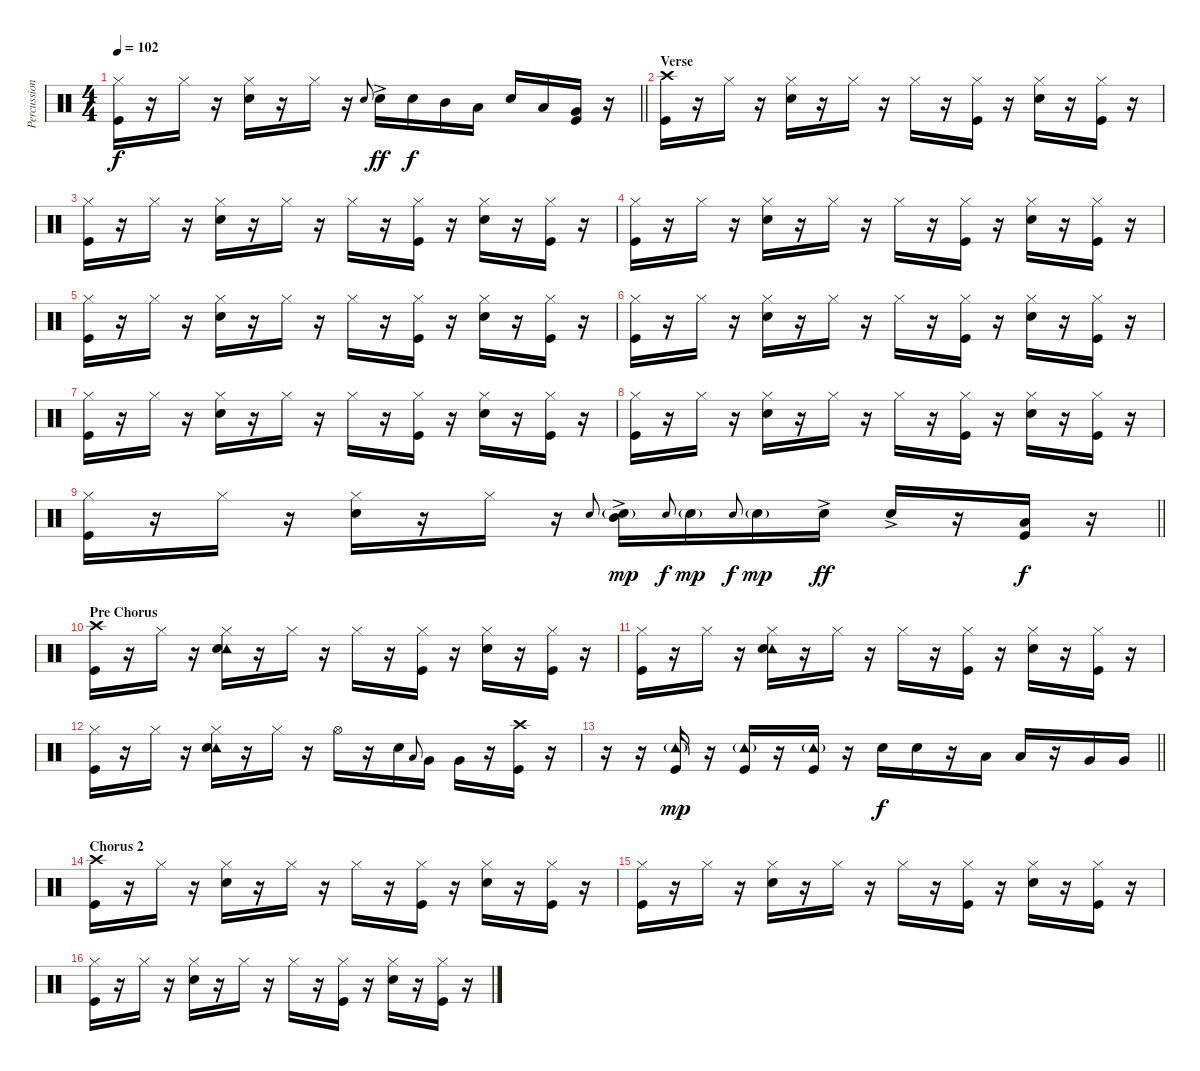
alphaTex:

\track ("Percussion" "Percussion") {instrument percussion}
\staff {score}
\articulation defaults
\ts (4 4)
\tempo 102
\clef neutral
\barLineRight lightlight
\ks c
("Hi-Hat (closed)" "Kick (hit)").16{dy f} r.16 "Hi-Hat (closed)".16 r.16 ("Hi-Hat (closed)" "Snare (hit) 2").16 r.16 "Hi-Hat (closed)".16 r.16 "Snare (hit) 2".8{gr onbeat} "Snare (hit) 2"{ac}.16{dy ff} "Snare (hit) 2".16{dy f} "Mid Tom (hit)".16 "Low Tom (hit)".16 "Snare (hit) 2".16 "Low Tom (hit)".16 ("Very Low Tom (hit)" "Kick (hit)").16 r.16 |
\section ("" "Verse")
("Crash high (hit)" "Kick (hit)").16 r.16 "Hi-Hat (closed)".16 r.16 ("Hi-Hat (closed)" "Snare (hit) 2").16 r.16 "Hi-Hat (closed)".16 r.16 "Hi-Hat (closed)".16 r.16 ("Hi-Hat (closed)" "Kick (hit)").16 r.16 ("Hi-Hat (closed)" "Snare (hit) 2").16 r.16 ("Hi-Hat (closed)" "Kick (hit)").16 r.16 |
("Hi-Hat (closed)" "Kick (hit)").16 r.16 "Hi-Hat (closed)".16 r.16 ("Hi-Hat (closed)" "Snare (hit) 2").16 r.16 "Hi-Hat (closed)".16 r.16 "Hi-Hat (closed)".16 r.16 ("Hi-Hat (closed)" "Kick (hit)").16 r.16 ("Hi-Hat (closed)" "Snare (hit) 2").16 r.16 ("Hi-Hat (closed)" "Kick (hit)").16 r.16 |
("Hi-Hat (closed)" "Kick (hit)").16 r.16 "Hi-Hat (closed)".16 r.16 ("Hi-Hat (closed)" "Snare (hit) 2").16 r.16 "Hi-Hat (closed)".16 r.16 "Hi-Hat (closed)".16 r.16 ("Hi-Hat (closed)" "Kick (hit)").16 r.16 ("Hi-Hat (closed)" "Snare (hit) 2").16 r.16 ("Hi-Hat (closed)" "Kick (hit)").16 r.16 |
("Hi-Hat (closed)" "Kick (hit)").16 r.16 "Hi-Hat (closed)".16 r.16 ("Hi-Hat (closed)" "Snare (hit) 2").16 r.16 "Hi-Hat (closed)".16 r.16 "Hi-Hat (closed)".16 r.16 ("Hi-Hat (closed)" "Kick (hit)").16 r.16 ("Hi-Hat (closed)" "Snare (hit) 2").16 r.16 ("Hi-Hat (closed)" "Kick (hit)").16 r.16 |
("Hi-Hat (closed)" "Kick (hit)").16 r.16 "Hi-Hat (closed)".16 r.16 ("Hi-Hat (closed)" "Snare (hit) 2").16 r.16 "Hi-Hat (closed)".16 r.16 "Hi-Hat (closed)".16 r.16 ("Hi-Hat (closed)" "Kick (hit)").16 r.16 ("Hi-Hat (closed)" "Snare (hit) 2").16 r.16 ("Hi-Hat (closed)" "Kick (hit)").16 r.16 |
("Hi-Hat (closed)" "Kick (hit)").16 r.16 "Hi-Hat (closed)".16 r.16 ("Hi-Hat (closed)" "Snare (hit) 2").16 r.16 "Hi-Hat (closed)".16 r.16 "Hi-Hat (closed)".16 r.16 ("Hi-Hat (closed)" "Kick (hit)").16 r.16 ("Hi-Hat (closed)" "Snare (hit) 2").16 r.16 ("Hi-Hat (closed)" "Kick (hit)").16 r.16 |
("Hi-Hat (closed)" "Kick (hit)").16 r.16 "Hi-Hat (closed)".16 r.16 ("Hi-Hat (closed)" "Snare (hit) 2").16 r.16 "Hi-Hat (closed)".16 r.16 "Hi-Hat (closed)".16 r.16 ("Hi-Hat (closed)" "Kick (hit)").16 r.16 ("Hi-Hat (closed)" "Snare (hit) 2").16 r.16 ("Hi-Hat (closed)" "Kick (hit)").16 r.16 |
\barLineRight lightlight
("Hi-Hat (closed)" "Kick (hit)").16 r.16 "Hi-Hat (closed)".16 r.16 ("Hi-Hat (closed)" "Snare (hit) 2").16 r.16 "Hi-Hat (closed)".16 r.16 "Snare (hit) 2".8{gr onbeat} ("Mid Tom (hit)"{ac} "Snare (hit) 2"{g}).16{dy mp} "Snare (hit) 2".8{gr onbeat dy f} "Snare (hit) 2"{g}.16{dy mp} "Snare (hit) 2".8{gr onbeat dy f} "Snare (hit) 2"{g}.16{dy mp} "Snare (hit) 2"{ac}.16{dy ff} "Snare (hit) 2"{ac}.16 r.16 ("Low Tom (hit)" "Kick (hit)").16{dy f} r.16 |
\section ("" "Pre Chorus")
("Crash high (hit)" "Kick (hit)").16 r.16 "Hi-Hat (closed)".16 r.16 ("Tambourine (hit)" "Hi-Hat (closed)" "Snare (hit) 2").16 r.16 "Hi-Hat (closed)".16 r.16 "Hi-Hat (closed)".16 r.16 ("Hi-Hat (closed)" "Kick (hit)").16 r.16 ("Hi-Hat (closed)" "Snare (hit) 2").16 r.16 ("Hi-Hat (closed)" "Kick (hit)").16 r.16 |
("Hi-Hat (closed)" "Kick (hit)").16 r.16 "Hi-Hat (closed)".16 r.16 ("Tambourine (hit)" "Hi-Hat (closed)" "Snare (hit) 2").16 r.16 "Hi-Hat (closed)".16 r.16 "Hi-Hat (closed)".16 r.16 ("Hi-Hat (closed)" "Kick (hit)").16 r.16 ("Hi-Hat (closed)" "Snare (hit) 2").16 r.16 ("Hi-Hat (closed)" "Kick (hit)").16 r.16 |
("Hi-Hat (closed)" "Kick (hit)").16 r.16 "Hi-Hat (closed)".16 r.16 ("Tambourine (hit)" "Hi-Hat (closed)" "Snare (hit) 2").16 r.16 "Hi-Hat (closed)".16 r.16 "Hi-Hat (open)".16 r.16 "Snare (hit) 2".16 "Low Tom (hit)".8{gr onbeat} "Very Low Tom (hit)".16 "Very Low Tom (hit)".16 r.16 ("Crash high (hit)" "Kick (hit)").16 r.16 |
\barLineRight lightlight
r.16 r.16 ("Tambourine (hit)"{g} "Kick (hit)").16{dy mp} r.16 ("Tambourine (hit)"{g} "Kick (hit)").16 r.16 ("Tambourine (hit)"{g} "Kick (hit)").16 r.16 "Snare (hit) 2".16{dy f} "Snare (hit) 2".16 r.16 "Low Tom (hit)".16 "Low Tom (hit)".16 r.16 "Very Low Tom (hit)".16 "Very Low Tom (hit)".16 |
\section ("" "Chorus 2")
("Crash high (hit)" "Kick (hit)").16 r.16 "Hi-Hat (closed)".16 r.16 ("Hi-Hat (closed)" "Snare (hit) 2").16 r.16 "Hi-Hat (closed)".16 r.16 "Hi-Hat (closed)".16 r.16 ("Hi-Hat (closed)" "Kick (hit)").16 r.16 ("Hi-Hat (closed)" "Snare (hit) 2").16 r.16 ("Hi-Hat (closed)" "Kick (hit)").16 r.16 |
("Hi-Hat (closed)" "Kick (hit)").16 r.16 "Hi-Hat (closed)".16 r.16 ("Hi-Hat (closed)" "Snare (hit) 2").16 r.16 "Hi-Hat (closed)".16 r.16 "Hi-Hat (closed)".16 r.16 ("Hi-Hat (closed)" "Kick (hit)").16 r.16 ("Hi-Hat (closed)" "Snare (hit) 2").16 r.16 ("Hi-Hat (closed)" "Kick (hit)").16 r.16 |
("Hi-Hat (closed)" "Kick (hit)").16 r.16 "Hi-Hat (closed)".16 r.16 ("Hi-Hat (closed)" "Snare (hit) 2").16 r.16 "Hi-Hat (closed)".16 r.16 "Hi-Hat (closed)".16 r.16 ("Hi-Hat (closed)" "Kick (hit)").16 r.16 ("Hi-Hat (closed)" "Snare (hit) 2").16 r.16 ("Hi-Hat (closed)" "Kick (hit)").16 r.16
